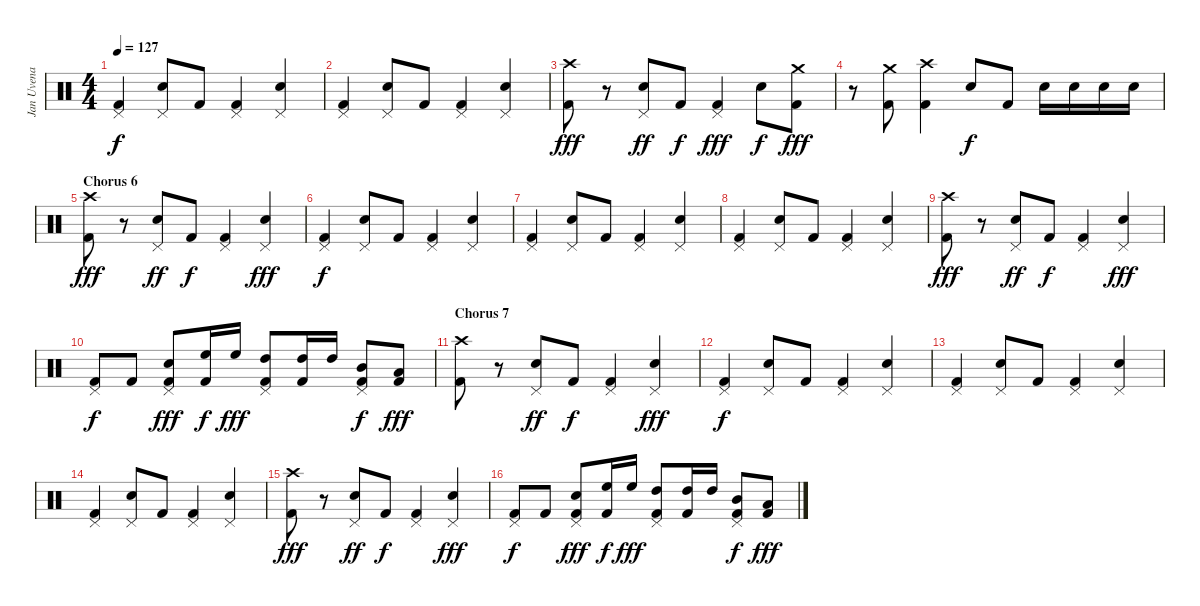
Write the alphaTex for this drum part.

\track ("Jan Uvena" "Jan Uvena") {instrument percussion}
\staff {score}
\articulation defaults
\ts (4 4)
\tempo 127
\clef neutral
\ks c
("Pedal Hi-Hat (hit)" "Kick (hit) 2").4{dy f} ("Pedal Hi-Hat (hit)" "Snare (hit) 2").8 "Kick (hit) 2".8 ("Pedal Hi-Hat (hit)" "Kick (hit) 2").4 ("Pedal Hi-Hat (hit)" "Snare (hit) 2").4 |
("Pedal Hi-Hat (hit)" "Kick (hit) 2").4 ("Pedal Hi-Hat (hit)" "Snare (hit) 2").8 "Kick (hit) 2".8 ("Pedal Hi-Hat (hit)" "Kick (hit) 2").4 ("Pedal Hi-Hat (hit)" "Snare (hit) 2").4 |
("Crash high (hit)" "Kick (hit) 2").8{dy fff} r.8 ("Pedal Hi-Hat (hit)" "Snare (hit) 2").8{dy ff} "Kick (hit) 2".8{dy f} ("Pedal Hi-Hat (hit)" "Kick (hit) 2").4{dy fff} "Snare (hit) 2".8{dy f} ("Crash medium (hit)" "Kick (hit) 2").8{dy fff} |
r.8 ("Crash medium (hit)" "Kick (hit) 2").8 ("Crash high (hit)" "Kick (hit) 2").4 "Snare (hit) 2".8{dy f} "Kick (hit) 2".8 "Snare (hit) 2".16 "Snare (hit) 2".16 "Snare (hit) 2".16 "Snare (hit) 2".16 |
\section ("" "Chorus 6")
("Crash high (hit)" "Kick (hit) 2").8{dy fff} r.8 ("Pedal Hi-Hat (hit)" "Snare (hit) 2").8{dy ff} "Kick (hit) 2".8{dy f} ("Pedal Hi-Hat (hit)" "Kick (hit) 2").4 ("Pedal Hi-Hat (hit)" "Snare (hit) 2").4{dy fff} |
("Pedal Hi-Hat (hit)" "Kick (hit) 2").4{dy f} ("Pedal Hi-Hat (hit)" "Snare (hit) 2").8 "Kick (hit) 2".8 ("Pedal Hi-Hat (hit)" "Kick (hit) 2").4 ("Pedal Hi-Hat (hit)" "Snare (hit) 2").4 |
("Pedal Hi-Hat (hit)" "Kick (hit) 2").4 ("Pedal Hi-Hat (hit)" "Snare (hit) 2").8 "Kick (hit) 2".8 ("Pedal Hi-Hat (hit)" "Kick (hit) 2").4 ("Pedal Hi-Hat (hit)" "Snare (hit) 2").4 |
("Pedal Hi-Hat (hit)" "Kick (hit) 2").4 ("Pedal Hi-Hat (hit)" "Snare (hit) 2").8 "Kick (hit) 2".8 ("Pedal Hi-Hat (hit)" "Kick (hit) 2").4 ("Pedal Hi-Hat (hit)" "Snare (hit) 2").4 |
("Crash high (hit)" "Kick (hit) 2").8{dy fff} r.8 ("Pedal Hi-Hat (hit)" "Snare (hit) 2").8{dy ff} "Kick (hit) 2".8{dy f} ("Pedal Hi-Hat (hit)" "Kick (hit) 2").4 ("Pedal Hi-Hat (hit)" "Snare (hit) 2").4{dy fff} |
("Pedal Hi-Hat (hit)" "Kick (hit) 2").8{dy f} "Kick (hit) 2".8 ("Pedal Hi-Hat (hit)" "Snare (hit) 2" "Kick (hit) 2").8{dy fff} ("High Floor Tom (hit)" "Kick (hit) 2").16{dy f} "High Floor Tom (hit)".16{dy fff} ("High Tom (hit)" "Pedal Hi-Hat (hit)" "Kick (hit) 2").8 ("High Tom (hit)" "Kick (hit) 2").16 "High Tom (hit)".16 ("Mid Tom (hit)" "Pedal Hi-Hat (hit)" "Kick (hit) 2").8{dy f} ("Low Tom (hit)" "Kick (hit) 2").8{dy fff} |
\section ("" "Chorus 7")
("Crash high (hit)" "Kick (hit) 2").8 r.8 ("Pedal Hi-Hat (hit)" "Snare (hit) 2").8{dy ff} "Kick (hit) 2".8{dy f} ("Pedal Hi-Hat (hit)" "Kick (hit) 2").4 ("Pedal Hi-Hat (hit)" "Snare (hit) 2").4{dy fff} |
("Pedal Hi-Hat (hit)" "Kick (hit) 2").4{dy f} ("Pedal Hi-Hat (hit)" "Snare (hit) 2").8 "Kick (hit) 2".8 ("Pedal Hi-Hat (hit)" "Kick (hit) 2").4 ("Pedal Hi-Hat (hit)" "Snare (hit) 2").4 |
("Pedal Hi-Hat (hit)" "Kick (hit) 2").4 ("Pedal Hi-Hat (hit)" "Snare (hit) 2").8 "Kick (hit) 2".8 ("Pedal Hi-Hat (hit)" "Kick (hit) 2").4 ("Pedal Hi-Hat (hit)" "Snare (hit) 2").4 |
("Pedal Hi-Hat (hit)" "Kick (hit) 2").4 ("Pedal Hi-Hat (hit)" "Snare (hit) 2").8 "Kick (hit) 2".8 ("Pedal Hi-Hat (hit)" "Kick (hit) 2").4 ("Pedal Hi-Hat (hit)" "Snare (hit) 2").4 |
("Crash high (hit)" "Kick (hit) 2").8{dy fff} r.8 ("Pedal Hi-Hat (hit)" "Snare (hit) 2").8{dy ff} "Kick (hit) 2".8{dy f} ("Pedal Hi-Hat (hit)" "Kick (hit) 2").4 ("Pedal Hi-Hat (hit)" "Snare (hit) 2").4{dy fff} |
("Pedal Hi-Hat (hit)" "Kick (hit) 2").8{dy f} "Kick (hit) 2".8 ("Pedal Hi-Hat (hit)" "Snare (hit) 2" "Kick (hit) 2").8{dy fff} ("High Floor Tom (hit)" "Kick (hit) 2").16{dy f} "High Floor Tom (hit)".16{dy fff} ("High Tom (hit)" "Pedal Hi-Hat (hit)" "Kick (hit) 2").8 ("High Tom (hit)" "Kick (hit) 2").16 "High Tom (hit)".16 ("Mid Tom (hit)" "Pedal Hi-Hat (hit)" "Kick (hit) 2").8{dy f} ("Low Tom (hit)" "Kick (hit) 2").8{dy fff}
